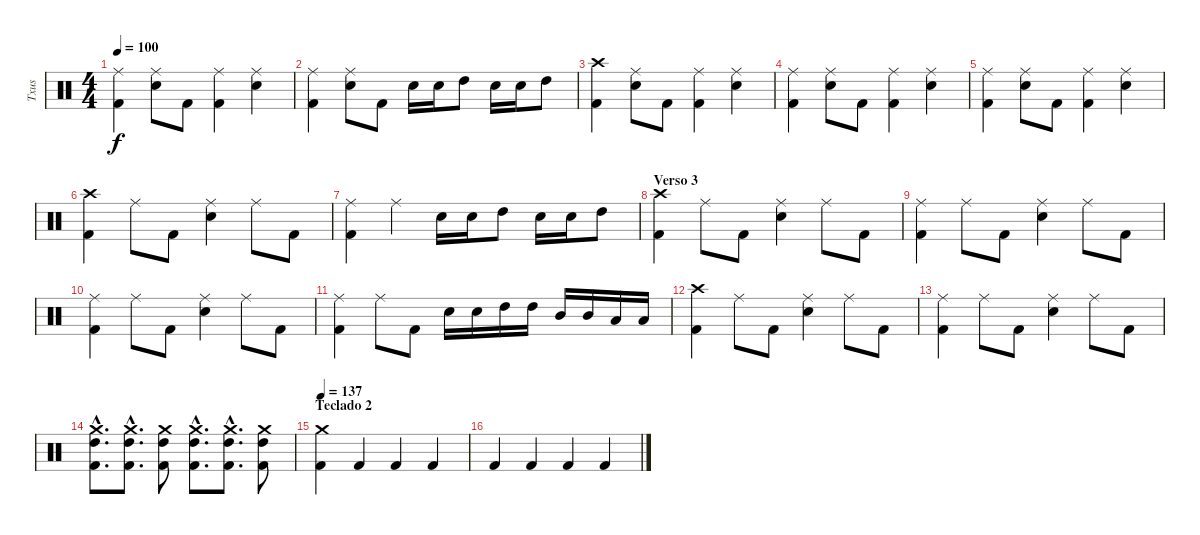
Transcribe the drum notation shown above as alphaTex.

\track ("Txus" "Txus") {instrument percussion}
\staff {score}
\articulation defaults
\ts (4 4)
\tempo 100
\clef neutral
\ks c
("Kick (hit) 2" "Ride (middle)").4{dy f} ("Electric Snare (hit)" "Ride (middle)").8 "Kick (hit) 2".8 ("Kick (hit) 2" "Ride (middle)").4 ("Electric Snare (hit)" "Ride (middle)").4 |
("Kick (hit) 2" "Ride (middle)").4 ("Electric Snare (hit)" "Ride (middle)").8 "Kick (hit) 2".8 "Electric Snare (hit)".16 "Electric Snare (hit)".16 "High Tom (hit)".8 "Electric Snare (hit)".16 "Electric Snare (hit)".16 "High Tom (hit)".8 |
("Kick (hit) 2" "Crash high (hit)").4 ("Electric Snare (hit)" "Ride (middle)").8 "Kick (hit) 2".8 ("Kick (hit) 2" "Ride (middle)").4 ("Electric Snare (hit)" "Ride (middle)").4 |
("Kick (hit) 2" "Ride (middle)").4 ("Electric Snare (hit)" "Ride (middle)").8 "Kick (hit) 2".8 ("Kick (hit) 2" "Ride (middle)").4 ("Electric Snare (hit)" "Ride (middle)").4 |
("Kick (hit) 2" "Ride (middle)").4 ("Electric Snare (hit)" "Ride (middle)").8 "Kick (hit) 2".8 ("Kick (hit) 2" "Ride (middle)").4 ("Electric Snare (hit)" "Ride (middle)").4 |
("Kick (hit) 2" "Crash high (hit)").4 "Ride (middle)".8 "Kick (hit) 2".8 ("Electric Snare (hit)" "Ride (middle)").4 "Ride (middle)".8 "Kick (hit) 2".8 |
("Kick (hit) 2" "Ride (middle)").4 "Ride (middle)".4 "Electric Snare (hit)".16 "Electric Snare (hit)".16 "High Tom (hit)".8 "Electric Snare (hit)".16 "Electric Snare (hit)".16 "High Tom (hit)".8 |
\section ("" "Verso 3")
("Kick (hit) 2" "Crash high (hit)").4{volume 16} "Ride (middle)".8 "Kick (hit) 2".8 ("Electric Snare (hit)" "Ride (middle)").4 "Ride (middle)".8 "Kick (hit) 2".8 |
("Kick (hit) 2" "Ride (middle)").4 "Ride (middle)".8 "Kick (hit) 2".8 ("Electric Snare (hit)" "Ride (middle)").4 "Ride (middle)".8 "Kick (hit) 2".8 |
("Kick (hit) 2" "Ride (middle)").4 "Ride (middle)".8 "Kick (hit) 2".8 ("Electric Snare (hit)" "Ride (middle)").4 "Ride (middle)".8 "Kick (hit) 2".8 |
("Kick (hit) 2" "Ride (middle)").4 "Ride (middle)".8 "Kick (hit) 2".8 "Electric Snare (hit)".16 "Electric Snare (hit)".16 "High Tom (hit)".16 "High Tom (hit)".16 "Mid Tom (hit)".16 "Mid Tom (hit)".16 "Low Tom (hit)".16 "Low Tom (hit)".16 |
("Kick (hit) 2" "Crash high (hit)").4 "Ride (middle)".8 "Kick (hit) 2".8 ("Electric Snare (hit)" "Ride (middle)").4 "Ride (middle)".8 "Kick (hit) 2".8 |
("Kick (hit) 2" "Ride (middle)").4 "Ride (middle)".8 "Kick (hit) 2".8 ("Electric Snare (hit)" "Ride (middle)").4 "Ride (middle)".8 "Kick (hit) 2".8 |
("Kick (hit) 2"{hac} "High Tom (hit)"{hac} "Crash medium (hit)"{hac}).8{d} ("Kick (hit) 2"{hac} "High Tom (hit)"{hac} "Crash medium (hit)"{hac}).8{d} ("Kick (hit) 2" "High Tom (hit)" "Crash medium (hit)").8 ("Kick (hit) 2"{hac} "High Tom (hit)"{hac} "Crash medium (hit)"{hac}).8{d} ("Kick (hit) 2"{hac} "High Tom (hit)"{hac} "Crash medium (hit)"{hac}).8{d} ("Kick (hit) 2" "High Tom (hit)" "Crash medium (hit)").8 |
\section ("" "Teclado 2")
\tempo 137
("Kick (hit) 2" "Crash medium (hit)").4 "Kick (hit) 2".4 "Kick (hit) 2".4 "Kick (hit) 2".4 |
"Kick (hit) 2".4 "Kick (hit) 2".4 "Kick (hit) 2".4 "Kick (hit) 2".4
